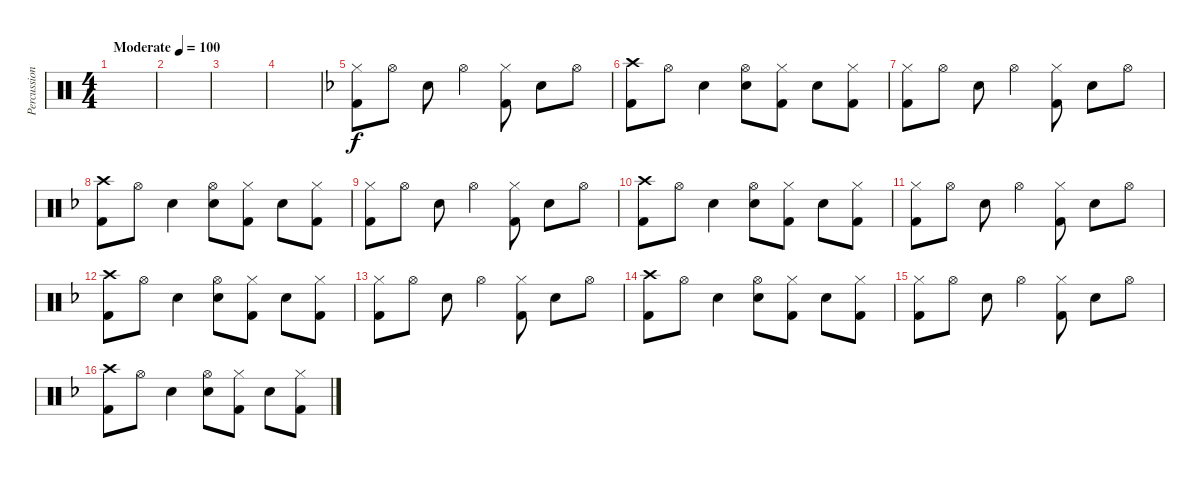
\track ("Percussion" "Percussion") {instrument percussion}
\staff {score}
\articulation defaults
\ts (4 4)
\tempo (100 "Moderate")
\clef neutral
\ks c
|
|
|
|
\ks dminor
("Hi-Hat (closed)" "Kick (hit) 2").8 "Hi-Hat (open)".8 "Snare (hit) 2".8 "Hi-Hat (open)".4 ("Hi-Hat (closed)" "Kick (hit) 2").8 "Snare (hit) 2".8 "Hi-Hat (open)".8 |
("Crash high (hit)" "Kick (hit) 2").8 "Hi-Hat (open)".8 "Snare (hit) 2".4 ("Hi-Hat (open)" "Snare (hit) 2").8 ("Hi-Hat (closed)" "Kick (hit) 2").8 "Snare (hit) 2".8 ("Hi-Hat (closed)" "Kick (hit) 2").8 |
("Hi-Hat (closed)" "Kick (hit) 2").8 "Hi-Hat (open)".8 "Snare (hit) 2".8 "Hi-Hat (open)".4 ("Hi-Hat (closed)" "Kick (hit) 2").8 "Snare (hit) 2".8 "Hi-Hat (open)".8 |
("Crash high (hit)" "Kick (hit) 2").8 "Hi-Hat (open)".8 "Snare (hit) 2".4 ("Hi-Hat (open)" "Snare (hit) 2").8 ("Hi-Hat (closed)" "Kick (hit) 2").8 "Snare (hit) 2".8 ("Hi-Hat (closed)" "Kick (hit) 2").8 |
("Hi-Hat (closed)" "Kick (hit) 2").8 "Hi-Hat (open)".8 "Snare (hit) 2".8 "Hi-Hat (open)".4 ("Hi-Hat (closed)" "Kick (hit) 2").8 "Snare (hit) 2".8 "Hi-Hat (open)".8 |
("Crash high (hit)" "Kick (hit) 2").8 "Hi-Hat (open)".8 "Snare (hit) 2".4 ("Hi-Hat (open)" "Snare (hit) 2").8 ("Hi-Hat (closed)" "Kick (hit) 2").8 "Snare (hit) 2".8 ("Hi-Hat (closed)" "Kick (hit) 2").8 |
("Hi-Hat (closed)" "Kick (hit) 2").8 "Hi-Hat (open)".8 "Snare (hit) 2".8 "Hi-Hat (open)".4 ("Hi-Hat (closed)" "Kick (hit) 2").8 "Snare (hit) 2".8 "Hi-Hat (open)".8 |
("Crash high (hit)" "Kick (hit) 2").8 "Hi-Hat (open)".8 "Snare (hit) 2".4 ("Hi-Hat (open)" "Snare (hit) 2").8 ("Hi-Hat (closed)" "Kick (hit) 2").8 "Snare (hit) 2".8 ("Hi-Hat (closed)" "Kick (hit) 2").8 |
("Hi-Hat (closed)" "Kick (hit) 2").8 "Hi-Hat (open)".8 "Snare (hit) 2".8 "Hi-Hat (open)".4 ("Hi-Hat (closed)" "Kick (hit) 2").8 "Snare (hit) 2".8 "Hi-Hat (open)".8 |
("Crash high (hit)" "Kick (hit) 2").8 "Hi-Hat (open)".8 "Snare (hit) 2".4 ("Hi-Hat (open)" "Snare (hit) 2").8 ("Hi-Hat (closed)" "Kick (hit) 2").8 "Snare (hit) 2".8 ("Hi-Hat (closed)" "Kick (hit) 2").8 |
("Hi-Hat (closed)" "Kick (hit) 2").8 "Hi-Hat (open)".8 "Snare (hit) 2".8 "Hi-Hat (open)".4 ("Hi-Hat (closed)" "Kick (hit) 2").8 "Snare (hit) 2".8 "Hi-Hat (open)".8 |
("Crash high (hit)" "Kick (hit) 2").8 "Hi-Hat (open)".8 "Snare (hit) 2".4 ("Hi-Hat (open)" "Snare (hit) 2").8 ("Hi-Hat (closed)" "Kick (hit) 2").8 "Snare (hit) 2".8 ("Hi-Hat (closed)" "Kick (hit) 2").8
